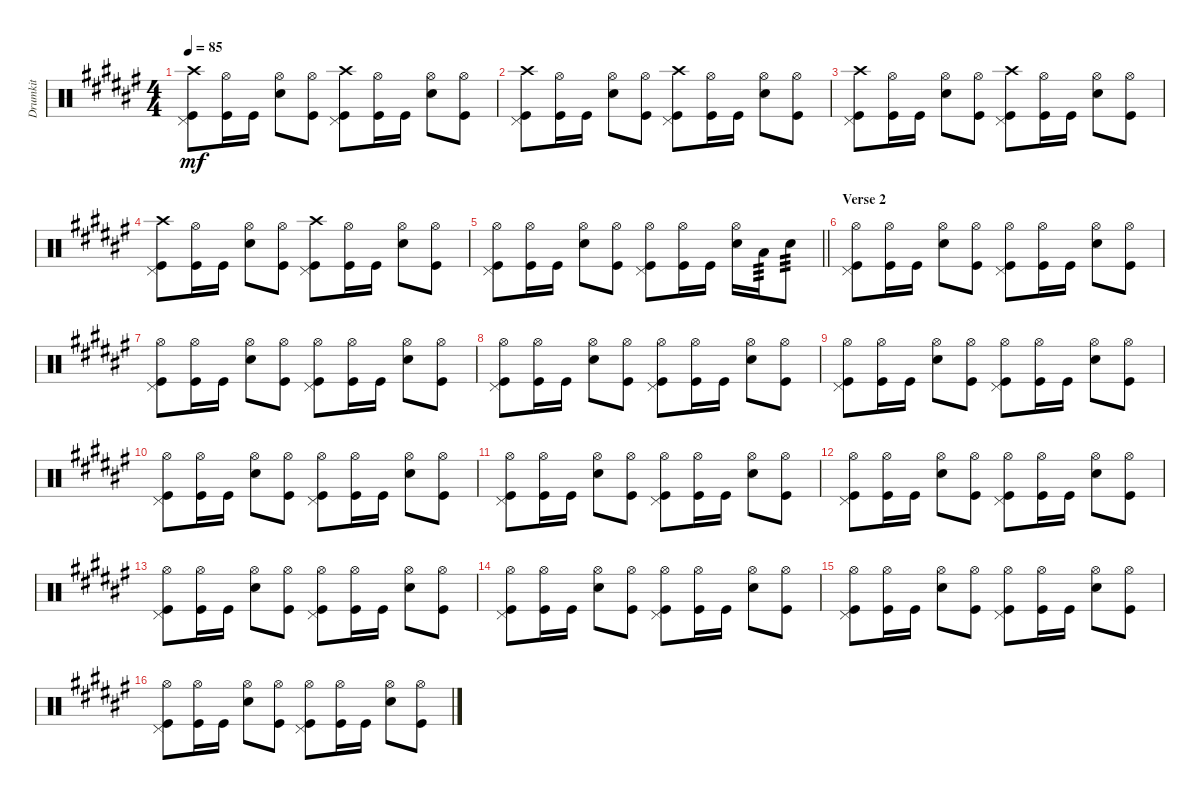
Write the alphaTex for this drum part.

\track ("Drumkit" "Drumkit") {instrument percussion}
\staff {score}
\articulation defaults
\ts (4 4)
\tempo 85
\clef neutral
\ks f#
("Kick (hit)" "Pedal Hi-Hat (hit)" "Crash high (hit)").8{dy mf} ("Kick (hit)" "Hi-Hat (open)").16 "Kick (hit)".16 ("Snare (hit) 2" "Hi-Hat (open)").8 ("Kick (hit)" "Hi-Hat (open)").8 ("Kick (hit)" "Pedal Hi-Hat (hit)" "Crash high (hit)").8 ("Kick (hit)" "Hi-Hat (open)").16 "Kick (hit)".16 ("Snare (hit) 2" "Hi-Hat (open)").8 ("Kick (hit)" "Hi-Hat (open)").8 |
("Kick (hit)" "Pedal Hi-Hat (hit)" "Crash high (hit)").8 ("Kick (hit)" "Hi-Hat (open)").16 "Kick (hit)".16 ("Snare (hit) 2" "Hi-Hat (open)").8 ("Kick (hit)" "Hi-Hat (open)").8 ("Kick (hit)" "Pedal Hi-Hat (hit)" "Crash high (hit)").8 ("Kick (hit)" "Hi-Hat (open)").16 "Kick (hit)".16 ("Snare (hit) 2" "Hi-Hat (open)").8 ("Kick (hit)" "Hi-Hat (open)").8 |
("Kick (hit)" "Pedal Hi-Hat (hit)" "Crash high (hit)").8 ("Kick (hit)" "Hi-Hat (open)").16 "Kick (hit)".16 ("Snare (hit) 2" "Hi-Hat (open)").8 ("Kick (hit)" "Hi-Hat (open)").8 ("Kick (hit)" "Pedal Hi-Hat (hit)" "Crash high (hit)").8 ("Kick (hit)" "Hi-Hat (open)").16 "Kick (hit)".16 ("Snare (hit) 2" "Hi-Hat (open)").8 ("Kick (hit)" "Hi-Hat (open)").8 |
("Kick (hit)" "Pedal Hi-Hat (hit)" "Crash high (hit)").8 ("Kick (hit)" "Hi-Hat (open)").16 "Kick (hit)".16 ("Snare (hit) 2" "Hi-Hat (open)").8 ("Kick (hit)" "Hi-Hat (open)").8 ("Kick (hit)" "Pedal Hi-Hat (hit)" "Crash high (hit)").8 ("Kick (hit)" "Hi-Hat (open)").16 "Kick (hit)".16 ("Snare (hit) 2" "Hi-Hat (open)").8 ("Kick (hit)" "Hi-Hat (open)").8 |
\barLineRight lightlight
("Kick (hit)" "Pedal Hi-Hat (hit)" "Hi-Hat (open)").8 ("Kick (hit)" "Hi-Hat (open)").16 "Kick (hit)".16 ("Snare (hit) 2" "Hi-Hat (open)").8 ("Kick (hit)" "Hi-Hat (open)").8 ("Kick (hit)" "Pedal Hi-Hat (hit)" "Hi-Hat (open)").8 ("Kick (hit)" "Hi-Hat (open)").16 "Kick (hit)".16 ("Snare (hit) 2" "Hi-Hat (open)").16 "Low Tom (hit)".16{tp 3} "Snare (hit) 2".8{tp 3} |
\section ("" "Verse 2")
("Kick (hit)" "Pedal Hi-Hat (hit)" "Hi-Hat (open)").8 ("Kick (hit)" "Hi-Hat (open)").16 "Kick (hit)".16 ("Snare (hit) 2" "Hi-Hat (open)").8 ("Kick (hit)" "Hi-Hat (open)").8 ("Kick (hit)" "Pedal Hi-Hat (hit)" "Hi-Hat (open)").8 ("Kick (hit)" "Hi-Hat (open)").16 "Kick (hit)".16 ("Snare (hit) 2" "Hi-Hat (open)").8 ("Kick (hit)" "Hi-Hat (open)").8 |
("Kick (hit)" "Pedal Hi-Hat (hit)" "Hi-Hat (open)").8 ("Kick (hit)" "Hi-Hat (open)").16 "Kick (hit)".16 ("Snare (hit) 2" "Hi-Hat (open)").8 ("Kick (hit)" "Hi-Hat (open)").8 ("Kick (hit)" "Pedal Hi-Hat (hit)" "Hi-Hat (open)").8 ("Kick (hit)" "Hi-Hat (open)").16 "Kick (hit)".16 ("Snare (hit) 2" "Hi-Hat (open)").8 ("Kick (hit)" "Hi-Hat (open)").8 |
("Kick (hit)" "Pedal Hi-Hat (hit)" "Hi-Hat (open)").8 ("Kick (hit)" "Hi-Hat (open)").16 "Kick (hit)".16 ("Snare (hit) 2" "Hi-Hat (open)").8 ("Kick (hit)" "Hi-Hat (open)").8 ("Kick (hit)" "Pedal Hi-Hat (hit)" "Hi-Hat (open)").8 ("Kick (hit)" "Hi-Hat (open)").16 "Kick (hit)".16 ("Snare (hit) 2" "Hi-Hat (open)").8 ("Kick (hit)" "Hi-Hat (open)").8 |
("Kick (hit)" "Pedal Hi-Hat (hit)" "Hi-Hat (open)").8 ("Kick (hit)" "Hi-Hat (open)").16 "Kick (hit)".16 ("Snare (hit) 2" "Hi-Hat (open)").8 ("Kick (hit)" "Hi-Hat (open)").8 ("Kick (hit)" "Pedal Hi-Hat (hit)" "Hi-Hat (open)").8 ("Kick (hit)" "Hi-Hat (open)").16 "Kick (hit)".16 ("Snare (hit) 2" "Hi-Hat (open)").8 ("Kick (hit)" "Hi-Hat (open)").8 |
("Kick (hit)" "Pedal Hi-Hat (hit)" "Hi-Hat (open)").8 ("Kick (hit)" "Hi-Hat (open)").16 "Kick (hit)".16 ("Snare (hit) 2" "Hi-Hat (open)").8 ("Kick (hit)" "Hi-Hat (open)").8 ("Kick (hit)" "Pedal Hi-Hat (hit)" "Hi-Hat (open)").8 ("Kick (hit)" "Hi-Hat (open)").16 "Kick (hit)".16 ("Snare (hit) 2" "Hi-Hat (open)").8 ("Kick (hit)" "Hi-Hat (open)").8 |
("Kick (hit)" "Pedal Hi-Hat (hit)" "Hi-Hat (open)").8 ("Kick (hit)" "Hi-Hat (open)").16 "Kick (hit)".16 ("Snare (hit) 2" "Hi-Hat (open)").8 ("Kick (hit)" "Hi-Hat (open)").8 ("Kick (hit)" "Pedal Hi-Hat (hit)" "Hi-Hat (open)").8 ("Kick (hit)" "Hi-Hat (open)").16 "Kick (hit)".16 ("Snare (hit) 2" "Hi-Hat (open)").8 ("Kick (hit)" "Hi-Hat (open)").8 |
("Kick (hit)" "Pedal Hi-Hat (hit)" "Hi-Hat (open)").8 ("Kick (hit)" "Hi-Hat (open)").16 "Kick (hit)".16 ("Snare (hit) 2" "Hi-Hat (open)").8 ("Kick (hit)" "Hi-Hat (open)").8 ("Kick (hit)" "Pedal Hi-Hat (hit)" "Hi-Hat (open)").8 ("Kick (hit)" "Hi-Hat (open)").16 "Kick (hit)".16 ("Snare (hit) 2" "Hi-Hat (open)").8 ("Kick (hit)" "Hi-Hat (open)").8 |
("Kick (hit)" "Pedal Hi-Hat (hit)" "Hi-Hat (open)").8 ("Kick (hit)" "Hi-Hat (open)").16 "Kick (hit)".16 ("Snare (hit) 2" "Hi-Hat (open)").8 ("Kick (hit)" "Hi-Hat (open)").8 ("Kick (hit)" "Pedal Hi-Hat (hit)" "Hi-Hat (open)").8 ("Kick (hit)" "Hi-Hat (open)").16 "Kick (hit)".16 ("Snare (hit) 2" "Hi-Hat (open)").8 ("Kick (hit)" "Hi-Hat (open)").8 |
("Kick (hit)" "Pedal Hi-Hat (hit)" "Hi-Hat (open)").8 ("Kick (hit)" "Hi-Hat (open)").16 "Kick (hit)".16 ("Snare (hit) 2" "Hi-Hat (open)").8 ("Kick (hit)" "Hi-Hat (open)").8 ("Kick (hit)" "Pedal Hi-Hat (hit)" "Hi-Hat (open)").8 ("Kick (hit)" "Hi-Hat (open)").16 "Kick (hit)".16 ("Snare (hit) 2" "Hi-Hat (open)").8 ("Kick (hit)" "Hi-Hat (open)").8 |
("Kick (hit)" "Pedal Hi-Hat (hit)" "Hi-Hat (open)").8 ("Kick (hit)" "Hi-Hat (open)").16 "Kick (hit)".16 ("Snare (hit) 2" "Hi-Hat (open)").8 ("Kick (hit)" "Hi-Hat (open)").8 ("Kick (hit)" "Pedal Hi-Hat (hit)" "Hi-Hat (open)").8 ("Kick (hit)" "Hi-Hat (open)").16 "Kick (hit)".16 ("Snare (hit) 2" "Hi-Hat (open)").8 ("Kick (hit)" "Hi-Hat (open)").8 |
("Kick (hit)" "Pedal Hi-Hat (hit)" "Hi-Hat (open)").8 ("Kick (hit)" "Hi-Hat (open)").16 "Kick (hit)".16 ("Snare (hit) 2" "Hi-Hat (open)").8 ("Kick (hit)" "Hi-Hat (open)").8 ("Kick (hit)" "Pedal Hi-Hat (hit)" "Hi-Hat (open)").8 ("Kick (hit)" "Hi-Hat (open)").16 "Kick (hit)".16 ("Snare (hit) 2" "Hi-Hat (open)").8 ("Kick (hit)" "Hi-Hat (open)").8
